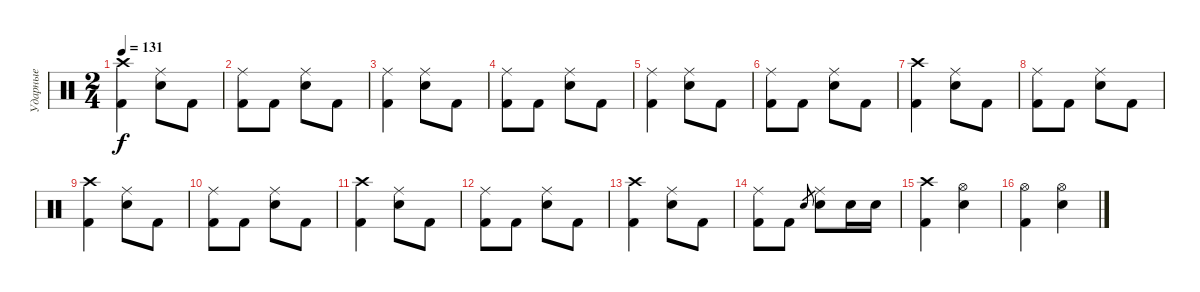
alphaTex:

\track ("Ударные" "Ударные") {instrument percussion}
\staff {score}
\articulation defaults
\ts (2 4)
\tempo 131
\clef neutral
\ks c
("Crash high (hit)" "Kick (hit) 2").4{dy f} ("Ride (middle)" "Electric Snare (hit)").8 "Kick (hit) 2".8 |
("Ride (middle)" "Kick (hit) 2").8 "Kick (hit) 2".8 ("Ride (middle)" "Electric Snare (hit)").8 "Kick (hit) 2".8 |
("Ride (middle)" "Kick (hit) 2").4 ("Ride (middle)" "Electric Snare (hit)").8 "Kick (hit) 2".8 |
("Ride (middle)" "Kick (hit) 2").8 "Kick (hit) 2".8 ("Ride (middle)" "Electric Snare (hit)").8 "Kick (hit) 2".8 |
("Ride (middle)" "Kick (hit) 2").4 ("Ride (middle)" "Electric Snare (hit)").8 "Kick (hit) 2".8 |
("Ride (middle)" "Kick (hit) 2").8 "Kick (hit) 2".8 ("Ride (middle)" "Electric Snare (hit)").8 "Kick (hit) 2".8 |
("Crash high (hit)" "Kick (hit) 2").4 ("Ride (middle)" "Electric Snare (hit)").8 "Kick (hit) 2".8 |
("Ride (middle)" "Kick (hit) 2").8 "Kick (hit) 2".8 ("Ride (middle)" "Electric Snare (hit)").8 "Kick (hit) 2".8 |
("Crash high (hit)" "Kick (hit) 2").4 ("Ride (middle)" "Electric Snare (hit)").8 "Kick (hit) 2".8 |
("Ride (middle)" "Kick (hit) 2").8 "Kick (hit) 2".8 ("Ride (middle)" "Electric Snare (hit)").8 "Kick (hit) 2".8 |
("Crash high (hit)" "Kick (hit) 2").4 ("Ride (middle)" "Electric Snare (hit)").8 "Kick (hit) 2".8 |
("Ride (middle)" "Kick (hit) 2").8 "Kick (hit) 2".8 ("Ride (middle)" "Electric Snare (hit)").8 "Kick (hit) 2".8 |
("Crash high (hit)" "Kick (hit) 2").4 ("Ride (middle)" "Electric Snare (hit)").8 "Kick (hit) 2".8 |
("Ride (middle)" "Kick (hit) 2").8 "Kick (hit) 2".8 "Electric Snare (hit)".8{gr} ("Ride (middle)" "Electric Snare (hit)").8 "Electric Snare (hit)".16 "Electric Snare (hit)".16 |
("Crash high (hit)" "Kick (hit) 2").4 ("Hi-Hat (open)" "Electric Snare (hit)").4 |
("Hi-Hat (open)" "Kick (hit) 2").4 ("Hi-Hat (open)" "Electric Snare (hit)").4
